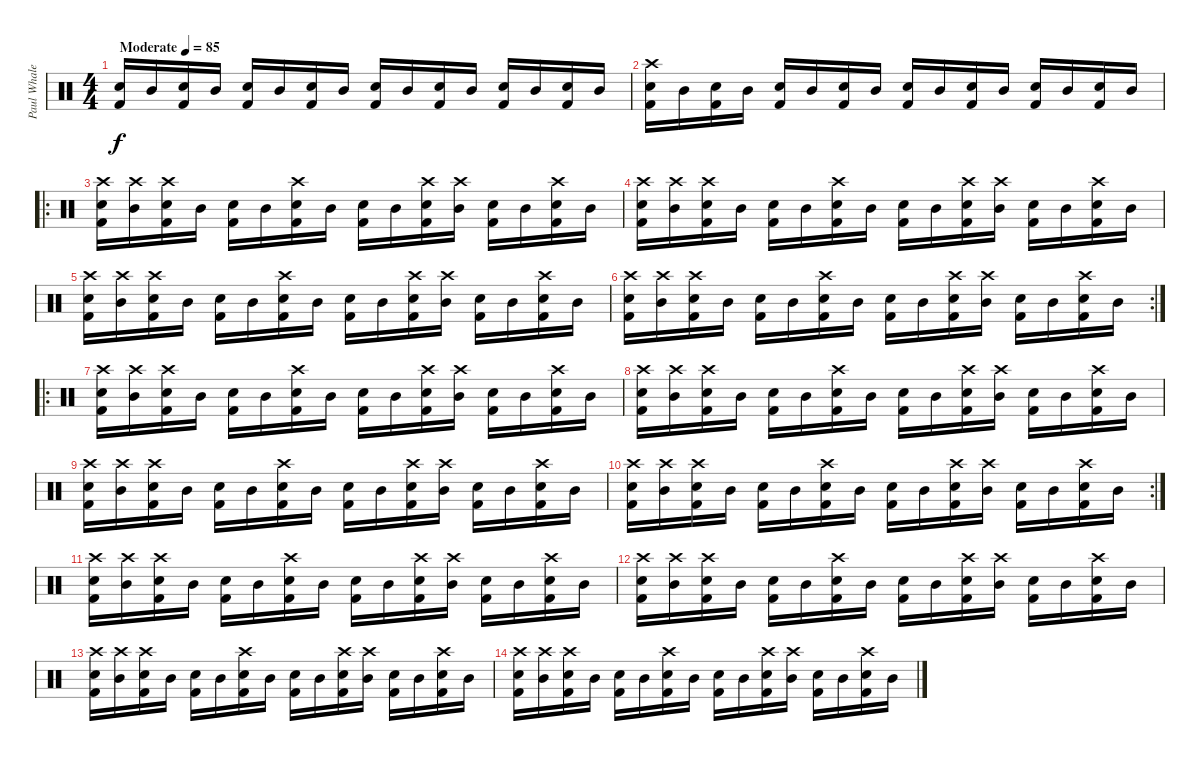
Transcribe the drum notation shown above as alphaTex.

\track ("Paul Whaley - Drums" "Paul Whale") {instrument percussion}
\staff {score}
\articulation defaults
\ts (4 4)
\tempo (85 "Moderate")
\clef neutral
\ks c
("Kick (hit) 2" "Electric Snare (hit)").16{dy f} "Mid Tom (hit)".16 ("Kick (hit) 2" "Electric Snare (hit)").16 "Mid Tom (hit)".16 ("Kick (hit) 2" "Electric Snare (hit)").16 "Mid Tom (hit)".16 ("Kick (hit) 2" "Electric Snare (hit)").16 "Mid Tom (hit)".16 ("Kick (hit) 2" "Electric Snare (hit)").16 "Mid Tom (hit)".16 ("Kick (hit) 2" "Electric Snare (hit)").16 "Mid Tom (hit)".16 ("Kick (hit) 2" "Electric Snare (hit)").16 "Mid Tom (hit)".16 ("Kick (hit) 2" "Electric Snare (hit)").16 "Mid Tom (hit)".16 |
("Kick (hit) 2" "Electric Snare (hit)" "Crash high (hit)").16 "Mid Tom (hit)".16 ("Kick (hit) 2" "Electric Snare (hit)").16 "Mid Tom (hit)".16 ("Kick (hit) 2" "Electric Snare (hit)").16 "Mid Tom (hit)".16 ("Kick (hit) 2" "Electric Snare (hit)").16 "Mid Tom (hit)".16 ("Kick (hit) 2" "Electric Snare (hit)").16 "Mid Tom (hit)".16 ("Kick (hit) 2" "Electric Snare (hit)").16 "Mid Tom (hit)".16 ("Kick (hit) 2" "Electric Snare (hit)").16 "Mid Tom (hit)".16 ("Kick (hit) 2" "Electric Snare (hit)").16 "Mid Tom (hit)".16 |
\ro
("Kick (hit) 2" "Electric Snare (hit)" "Crash high (hit)").16 ("Mid Tom (hit)" "Crash high (hit)").16 ("Kick (hit) 2" "Electric Snare (hit)" "Crash high (hit)").16 "Mid Tom (hit)".16 ("Kick (hit) 2" "Electric Snare (hit)").16 "Mid Tom (hit)".16 ("Kick (hit) 2" "Electric Snare (hit)" "Crash high (hit)").16 "Mid Tom (hit)".16 ("Kick (hit) 2" "Electric Snare (hit)").16 "Mid Tom (hit)".16 ("Kick (hit) 2" "Electric Snare (hit)" "Crash high (hit)").16 ("Mid Tom (hit)" "Crash high (hit)").16 ("Kick (hit) 2" "Electric Snare (hit)").16 "Mid Tom (hit)".16 ("Kick (hit) 2" "Electric Snare (hit)" "Crash high (hit)").16 "Mid Tom (hit)".16 |
("Kick (hit) 2" "Electric Snare (hit)" "Crash high (hit)").16 ("Mid Tom (hit)" "Crash high (hit)").16 ("Kick (hit) 2" "Electric Snare (hit)" "Crash high (hit)").16 "Mid Tom (hit)".16 ("Kick (hit) 2" "Electric Snare (hit)").16 "Mid Tom (hit)".16 ("Kick (hit) 2" "Electric Snare (hit)" "Crash high (hit)").16 "Mid Tom (hit)".16 ("Kick (hit) 2" "Electric Snare (hit)").16 "Mid Tom (hit)".16 ("Kick (hit) 2" "Electric Snare (hit)" "Crash high (hit)").16 ("Mid Tom (hit)" "Crash high (hit)").16 ("Kick (hit) 2" "Electric Snare (hit)").16 "Mid Tom (hit)".16 ("Kick (hit) 2" "Electric Snare (hit)" "Crash high (hit)").16 "Mid Tom (hit)".16 |
("Kick (hit) 2" "Electric Snare (hit)" "Crash high (hit)").16 ("Mid Tom (hit)" "Crash high (hit)").16 ("Kick (hit) 2" "Electric Snare (hit)" "Crash high (hit)").16 "Mid Tom (hit)".16 ("Kick (hit) 2" "Electric Snare (hit)").16 "Mid Tom (hit)".16 ("Kick (hit) 2" "Electric Snare (hit)" "Crash high (hit)").16 "Mid Tom (hit)".16 ("Kick (hit) 2" "Electric Snare (hit)").16 "Mid Tom (hit)".16 ("Kick (hit) 2" "Electric Snare (hit)" "Crash high (hit)").16 ("Mid Tom (hit)" "Crash high (hit)").16 ("Kick (hit) 2" "Electric Snare (hit)").16 "Mid Tom (hit)".16 ("Kick (hit) 2" "Electric Snare (hit)" "Crash high (hit)").16 "Mid Tom (hit)".16 |
\rc 2
("Kick (hit) 2" "Electric Snare (hit)" "Crash high (hit)").16 ("Mid Tom (hit)" "Crash high (hit)").16 ("Kick (hit) 2" "Electric Snare (hit)" "Crash high (hit)").16 "Mid Tom (hit)".16 ("Kick (hit) 2" "Electric Snare (hit)").16 "Mid Tom (hit)".16 ("Kick (hit) 2" "Electric Snare (hit)" "Crash high (hit)").16 "Mid Tom (hit)".16 ("Kick (hit) 2" "Electric Snare (hit)").16 "Mid Tom (hit)".16 ("Kick (hit) 2" "Electric Snare (hit)" "Crash high (hit)").16 ("Mid Tom (hit)" "Crash high (hit)").16 ("Kick (hit) 2" "Electric Snare (hit)").16 "Mid Tom (hit)".16 ("Kick (hit) 2" "Electric Snare (hit)" "Crash high (hit)").16 "Mid Tom (hit)".16 |
\ro
("Kick (hit) 2" "Electric Snare (hit)" "Crash high (hit)").16 ("Mid Tom (hit)" "Crash high (hit)").16 ("Kick (hit) 2" "Electric Snare (hit)" "Crash high (hit)").16 "Mid Tom (hit)".16 ("Kick (hit) 2" "Electric Snare (hit)").16 "Mid Tom (hit)".16 ("Kick (hit) 2" "Electric Snare (hit)" "Crash high (hit)").16 "Mid Tom (hit)".16 ("Kick (hit) 2" "Electric Snare (hit)").16 "Mid Tom (hit)".16 ("Kick (hit) 2" "Electric Snare (hit)" "Crash high (hit)").16 ("Mid Tom (hit)" "Crash high (hit)").16 ("Kick (hit) 2" "Electric Snare (hit)").16 "Mid Tom (hit)".16 ("Kick (hit) 2" "Electric Snare (hit)" "Crash high (hit)").16 "Mid Tom (hit)".16 |
("Kick (hit) 2" "Electric Snare (hit)" "Crash high (hit)").16 ("Mid Tom (hit)" "Crash high (hit)").16 ("Kick (hit) 2" "Electric Snare (hit)" "Crash high (hit)").16 "Mid Tom (hit)".16 ("Kick (hit) 2" "Electric Snare (hit)").16 "Mid Tom (hit)".16 ("Kick (hit) 2" "Electric Snare (hit)" "Crash high (hit)").16 "Mid Tom (hit)".16 ("Kick (hit) 2" "Electric Snare (hit)").16 "Mid Tom (hit)".16 ("Kick (hit) 2" "Electric Snare (hit)" "Crash high (hit)").16 ("Mid Tom (hit)" "Crash high (hit)").16 ("Kick (hit) 2" "Electric Snare (hit)").16 "Mid Tom (hit)".16 ("Kick (hit) 2" "Electric Snare (hit)" "Crash high (hit)").16 "Mid Tom (hit)".16 |
("Kick (hit) 2" "Electric Snare (hit)" "Crash high (hit)").16 ("Mid Tom (hit)" "Crash high (hit)").16 ("Kick (hit) 2" "Electric Snare (hit)" "Crash high (hit)").16 "Mid Tom (hit)".16 ("Kick (hit) 2" "Electric Snare (hit)").16 "Mid Tom (hit)".16 ("Kick (hit) 2" "Electric Snare (hit)" "Crash high (hit)").16 "Mid Tom (hit)".16 ("Kick (hit) 2" "Electric Snare (hit)").16 "Mid Tom (hit)".16 ("Kick (hit) 2" "Electric Snare (hit)" "Crash high (hit)").16 ("Mid Tom (hit)" "Crash high (hit)").16 ("Kick (hit) 2" "Electric Snare (hit)").16 "Mid Tom (hit)".16 ("Kick (hit) 2" "Electric Snare (hit)" "Crash high (hit)").16 "Mid Tom (hit)".16 |
\rc 2
("Kick (hit) 2" "Electric Snare (hit)" "Crash high (hit)").16 ("Mid Tom (hit)" "Crash high (hit)").16 ("Kick (hit) 2" "Electric Snare (hit)" "Crash high (hit)").16 "Mid Tom (hit)".16 ("Kick (hit) 2" "Electric Snare (hit)").16 "Mid Tom (hit)".16 ("Kick (hit) 2" "Electric Snare (hit)" "Crash high (hit)").16 "Mid Tom (hit)".16 ("Kick (hit) 2" "Electric Snare (hit)").16 "Mid Tom (hit)".16 ("Kick (hit) 2" "Electric Snare (hit)" "Crash high (hit)").16 ("Mid Tom (hit)" "Crash high (hit)").16 ("Kick (hit) 2" "Electric Snare (hit)").16 "Mid Tom (hit)".16 ("Kick (hit) 2" "Electric Snare (hit)" "Crash high (hit)").16 "Mid Tom (hit)".16 |
("Kick (hit) 2" "Electric Snare (hit)" "Crash high (hit)").16 ("Mid Tom (hit)" "Crash high (hit)").16 ("Kick (hit) 2" "Electric Snare (hit)" "Crash high (hit)").16 "Mid Tom (hit)".16 ("Kick (hit) 2" "Electric Snare (hit)").16 "Mid Tom (hit)".16 ("Kick (hit) 2" "Electric Snare (hit)" "Crash high (hit)").16 "Mid Tom (hit)".16 ("Kick (hit) 2" "Electric Snare (hit)").16 "Mid Tom (hit)".16 ("Kick (hit) 2" "Electric Snare (hit)" "Crash high (hit)").16 ("Mid Tom (hit)" "Crash high (hit)").16 ("Kick (hit) 2" "Electric Snare (hit)").16 "Mid Tom (hit)".16 ("Kick (hit) 2" "Electric Snare (hit)" "Crash high (hit)").16 "Mid Tom (hit)".16 |
("Kick (hit) 2" "Electric Snare (hit)" "Crash high (hit)").16 ("Mid Tom (hit)" "Crash high (hit)").16 ("Kick (hit) 2" "Electric Snare (hit)" "Crash high (hit)").16 "Mid Tom (hit)".16 ("Kick (hit) 2" "Electric Snare (hit)").16 "Mid Tom (hit)".16 ("Kick (hit) 2" "Electric Snare (hit)" "Crash high (hit)").16 "Mid Tom (hit)".16 ("Kick (hit) 2" "Electric Snare (hit)").16 "Mid Tom (hit)".16 ("Kick (hit) 2" "Electric Snare (hit)" "Crash high (hit)").16 ("Mid Tom (hit)" "Crash high (hit)").16 ("Kick (hit) 2" "Electric Snare (hit)").16 "Mid Tom (hit)".16 ("Kick (hit) 2" "Electric Snare (hit)" "Crash high (hit)").16 "Mid Tom (hit)".16 |
("Kick (hit) 2" "Electric Snare (hit)" "Crash high (hit)").16 ("Mid Tom (hit)" "Crash high (hit)").16 ("Kick (hit) 2" "Electric Snare (hit)" "Crash high (hit)").16 "Mid Tom (hit)".16 ("Kick (hit) 2" "Electric Snare (hit)").16 "Mid Tom (hit)".16 ("Kick (hit) 2" "Electric Snare (hit)" "Crash high (hit)").16 "Mid Tom (hit)".16 ("Kick (hit) 2" "Electric Snare (hit)").16 "Mid Tom (hit)".16 ("Kick (hit) 2" "Electric Snare (hit)" "Crash high (hit)").16 ("Mid Tom (hit)" "Crash high (hit)").16 ("Kick (hit) 2" "Electric Snare (hit)").16 "Mid Tom (hit)".16 ("Kick (hit) 2" "Electric Snare (hit)" "Crash high (hit)").16 "Mid Tom (hit)".16 |
("Kick (hit) 2" "Electric Snare (hit)" "Crash high (hit)").16 ("Mid Tom (hit)" "Crash high (hit)").16 ("Kick (hit) 2" "Electric Snare (hit)" "Crash high (hit)").16 "Mid Tom (hit)".16 ("Kick (hit) 2" "Electric Snare (hit)").16 "Mid Tom (hit)".16 ("Kick (hit) 2" "Electric Snare (hit)" "Crash high (hit)").16 "Mid Tom (hit)".16 ("Kick (hit) 2" "Electric Snare (hit)").16 "Mid Tom (hit)".16 ("Kick (hit) 2" "Electric Snare (hit)" "Crash high (hit)").16 ("Mid Tom (hit)" "Crash high (hit)").16 ("Kick (hit) 2" "Electric Snare (hit)").16 "Mid Tom (hit)".16 ("Kick (hit) 2" "Electric Snare (hit)" "Crash high (hit)").16 "Mid Tom (hit)".16
